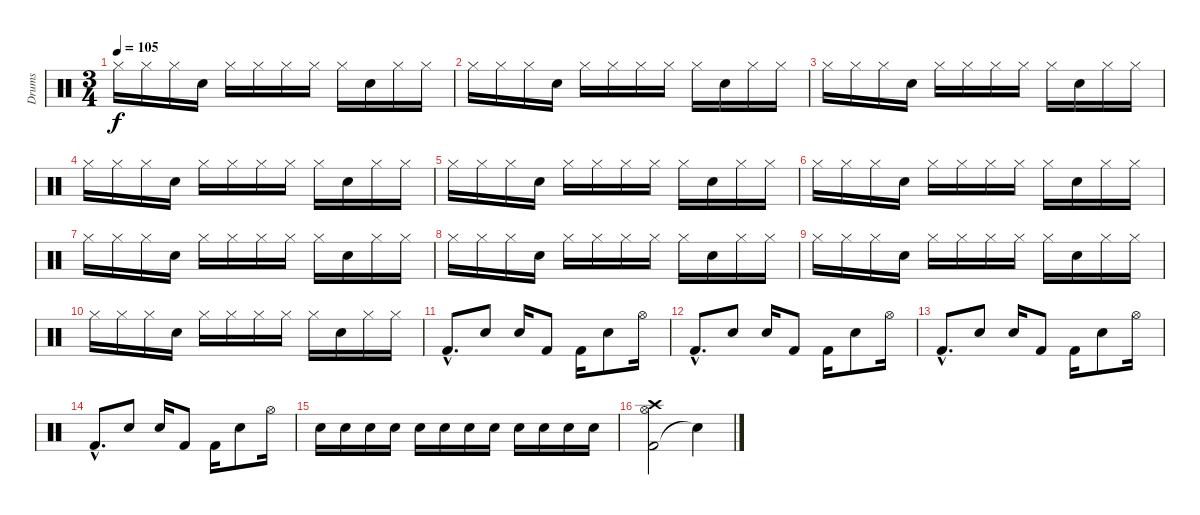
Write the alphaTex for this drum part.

\track ("Drums" "Drums") {instrument percussion}
\staff {score}
\articulation defaults
\ts (3 4)
\tempo 105
\clef neutral
\ks c "Hi-Hat (closed)".16{dy f} "Hi-Hat (closed)".16 "Hi-Hat (closed)".16 "Snare (hit) 2".16 "Hi-Hat (closed)".16 "Hi-Hat (closed)".16 "Hi-Hat (closed)".16 "Hi-Hat (closed)".16 "Hi-Hat (closed)".16 "Snare (hit) 2".16 "Hi-Hat (closed)".16 "Hi-Hat (closed)".16
|
"Hi-Hat (closed)".16 "Hi-Hat (closed)".16 "Hi-Hat (closed)".16 "Snare (hit) 2".16 "Hi-Hat (closed)".16 "Hi-Hat (closed)".16 "Hi-Hat (closed)".16 "Hi-Hat (closed)".16 "Hi-Hat (closed)".16 "Snare (hit) 2".16 "Hi-Hat (closed)".16 "Hi-Hat (closed)".16 |
"Hi-Hat (closed)".16 "Hi-Hat (closed)".16 "Hi-Hat (closed)".16 "Snare (hit) 2".16 "Hi-Hat (closed)".16 "Hi-Hat (closed)".16 "Hi-Hat (closed)".16 "Hi-Hat (closed)".16 "Hi-Hat (closed)".16 "Snare (hit) 2".16 "Hi-Hat (closed)".16 "Hi-Hat (closed)".16 |
"Hi-Hat (closed)".16 "Hi-Hat (closed)".16 "Hi-Hat (closed)".16 "Snare (hit) 2".16 "Hi-Hat (closed)".16 "Hi-Hat (closed)".16 "Hi-Hat (closed)".16 "Hi-Hat (closed)".16 "Hi-Hat (closed)".16 "Snare (hit) 2".16 "Hi-Hat (closed)".16 "Hi-Hat (closed)".16 |
"Hi-Hat (closed)".16 "Hi-Hat (closed)".16 "Hi-Hat (closed)".16 "Snare (hit) 2".16 "Hi-Hat (closed)".16 "Hi-Hat (closed)".16 "Hi-Hat (closed)".16 "Hi-Hat (closed)".16 "Hi-Hat (closed)".16 "Snare (hit) 2".16 "Hi-Hat (closed)".16 "Hi-Hat (closed)".16 |
"Hi-Hat (closed)".16 "Hi-Hat (closed)".16 "Hi-Hat (closed)".16 "Snare (hit) 2".16 "Hi-Hat (closed)".16 "Hi-Hat (closed)".16 "Hi-Hat (closed)".16 "Hi-Hat (closed)".16 "Hi-Hat (closed)".16 "Snare (hit) 2".16 "Hi-Hat (closed)".16 "Hi-Hat (closed)".16 |
"Hi-Hat (closed)".16 "Hi-Hat (closed)".16 "Hi-Hat (closed)".16 "Snare (hit) 2".16 "Hi-Hat (closed)".16 "Hi-Hat (closed)".16 "Hi-Hat (closed)".16 "Hi-Hat (closed)".16 "Hi-Hat (closed)".16 "Snare (hit) 2".16 "Hi-Hat (closed)".16 "Hi-Hat (closed)".16 |
"Hi-Hat (closed)".16 "Hi-Hat (closed)".16 "Hi-Hat (closed)".16 "Snare (hit) 2".16 "Hi-Hat (closed)".16 "Hi-Hat (closed)".16 "Hi-Hat (closed)".16 "Hi-Hat (closed)".16 "Hi-Hat (closed)".16 "Snare (hit) 2".16 "Hi-Hat (closed)".16 "Hi-Hat (closed)".16 |
"Hi-Hat (closed)".16 "Hi-Hat (closed)".16 "Hi-Hat (closed)".16 "Snare (hit) 2".16 "Hi-Hat (closed)".16 "Hi-Hat (closed)".16 "Hi-Hat (closed)".16 "Hi-Hat (closed)".16 "Hi-Hat (closed)".16 "Snare (hit) 2".16 "Hi-Hat (closed)".16 "Hi-Hat (closed)".16 |
"Hi-Hat (closed)".16 "Hi-Hat (closed)".16 "Hi-Hat (closed)".16 "Snare (hit) 2".16 "Hi-Hat (closed)".16 "Hi-Hat (closed)".16 "Hi-Hat (closed)".16 "Hi-Hat (closed)".16 "Hi-Hat (closed)".16 "Snare (hit) 2".16 "Hi-Hat (closed)".16 "Hi-Hat (closed)".16 |
"Kick (hit) 2"{hac}.8{d} "Snare (hit) 2".8 "Snare (hit) 2".16 "Kick (hit) 2".8 "Kick (hit) 2".16 "Snare (hit) 2".8 "Hi-Hat (open)".16 |
"Kick (hit) 2"{hac}.8{d} "Snare (hit) 2".8 "Snare (hit) 2".16 "Kick (hit) 2".8 "Kick (hit) 2".16 "Snare (hit) 2".8 "Hi-Hat (open)".16 |
"Kick (hit) 2"{hac}.8{d} "Snare (hit) 2".8 "Snare (hit) 2".16 "Kick (hit) 2".8 "Kick (hit) 2".16 "Snare (hit) 2".8 "Hi-Hat (open)".16 |
"Kick (hit) 2"{hac}.8{d} "Snare (hit) 2".8 "Snare (hit) 2".16 "Kick (hit) 2".8 "Kick (hit) 2".16 "Snare (hit) 2".8 "Hi-Hat (open)".16 |
"Snare (hit) 2".16 "Snare (hit) 2".16 "Snare (hit) 2".16 "Snare (hit) 2".16 "Snare (hit) 2".16 "Snare (hit) 2".16 "Snare (hit) 2".16 "Snare (hit) 2".16 "Snare (hit) 2".16 "Snare (hit) 2".16 "Snare (hit) 2".16 "Snare (hit) 2".16 |
("Kick (hit) 2" "Crash high (hit)" "Hi-Hat (open)").2 "Snare (hit)"{t}.4
